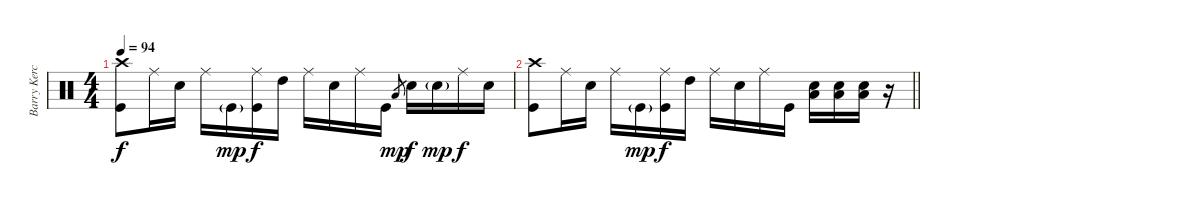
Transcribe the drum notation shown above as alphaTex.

\track ("Barry Kerch" "Barry Kerc") {instrument percussion}
\staff {score}
\articulation defaults
\ts (4 4)
\tempo 94
\clef neutral
\ks c
("Crash high (hit)" "Kick (hit)").8{dy f} "Ride (middle)".16 "Snare (hit) 2".16 "Ride (middle)".16 "Kick (hit)"{g}.16{dy mp} ("Ride (middle)" "Kick (hit)").16{dy f} "High Tom (hit)".16 "Ride (middle)".16 "Snare (hit) 2".16 "Ride (middle)".16 "Kick (hit)".16 "Low Tom (hit)".8{gr dy mp} "Snare (hit) 2".16{dy f} "Snare (hit) 2"{g}.16{dy mp} "Ride (middle)".16{dy f} "Snare (hit) 2".16 |
\barLineRight lightlight
("Crash high (hit)" "Kick (hit)").8 "Ride (middle)".16 "Snare (hit) 2".16 "Ride (middle)".16 "Kick (hit)"{g}.16{dy mp} ("Ride (middle)" "Kick (hit)").16{dy f} "High Tom (hit)".16 "Ride (middle)".16 "Snare (hit) 2".16 "Ride (middle)".16 "Kick (hit)".16 ("Low Tom (hit)" "Snare (hit) 2").16 ("Low Tom (hit)" "Snare (hit) 2").16 ("Low Tom (hit)" "Snare (hit) 2").16 r.16
